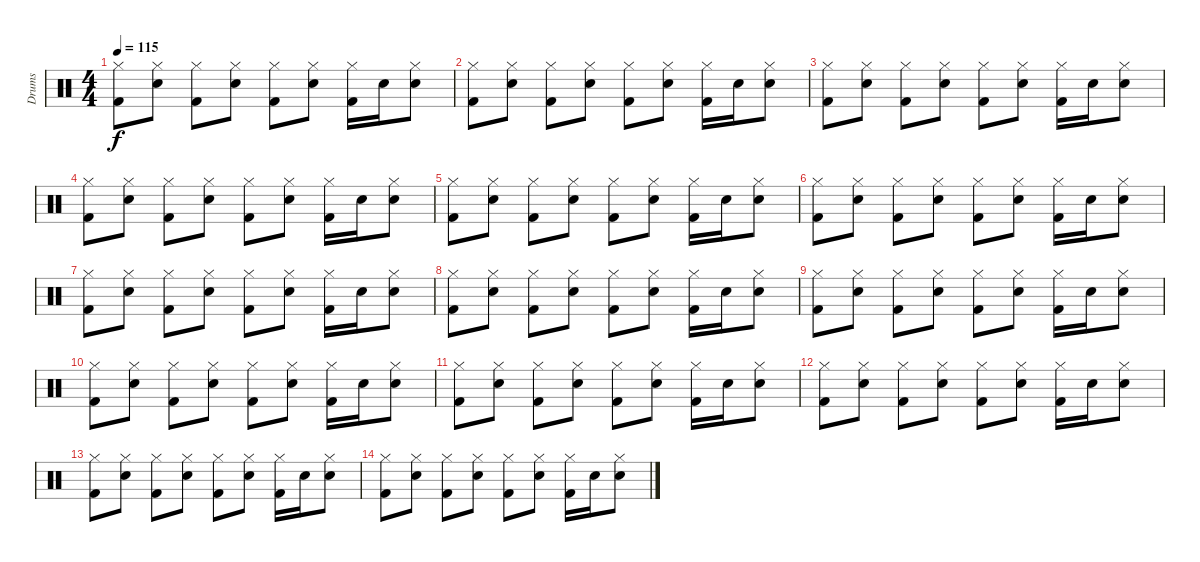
\track ("Drums" "Drums") {instrument percussion}
\staff {score}
\articulation defaults
\ts (4 4)
\tempo 115
\clef neutral
\ks c
("Hi-Hat (closed)" "Kick (hit) 2").8{dy f} ("Electric Snare (hit)" "Hi-Hat (closed)").8 ("Hi-Hat (closed)" "Kick (hit) 2").8 ("Electric Snare (hit)" "Hi-Hat (closed)").8 ("Hi-Hat (closed)" "Kick (hit) 2").8 ("Electric Snare (hit)" "Hi-Hat (closed)").8 ("Hi-Hat (closed)" "Kick (hit) 2").16 "Electric Snare (hit)".16 ("Electric Snare (hit)" "Hi-Hat (closed)").8 |
("Hi-Hat (closed)" "Kick (hit) 2").8 ("Electric Snare (hit)" "Hi-Hat (closed)").8 ("Hi-Hat (closed)" "Kick (hit) 2").8 ("Electric Snare (hit)" "Hi-Hat (closed)").8 ("Hi-Hat (closed)" "Kick (hit) 2").8 ("Electric Snare (hit)" "Hi-Hat (closed)").8 ("Hi-Hat (closed)" "Kick (hit) 2").16 "Electric Snare (hit)".16 ("Electric Snare (hit)" "Hi-Hat (closed)").8 |
("Hi-Hat (closed)" "Kick (hit) 2").8 ("Electric Snare (hit)" "Hi-Hat (closed)").8 ("Hi-Hat (closed)" "Kick (hit) 2").8 ("Electric Snare (hit)" "Hi-Hat (closed)").8 ("Hi-Hat (closed)" "Kick (hit) 2").8 ("Electric Snare (hit)" "Hi-Hat (closed)").8 ("Hi-Hat (closed)" "Kick (hit) 2").16 "Electric Snare (hit)".16 ("Electric Snare (hit)" "Hi-Hat (closed)").8 |
("Hi-Hat (closed)" "Kick (hit) 2").8 ("Electric Snare (hit)" "Hi-Hat (closed)").8 ("Hi-Hat (closed)" "Kick (hit) 2").8 ("Electric Snare (hit)" "Hi-Hat (closed)").8 ("Hi-Hat (closed)" "Kick (hit) 2").8 ("Electric Snare (hit)" "Hi-Hat (closed)").8 ("Hi-Hat (closed)" "Kick (hit) 2").16 "Electric Snare (hit)".16 ("Electric Snare (hit)" "Hi-Hat (closed)").8 |
("Hi-Hat (closed)" "Kick (hit) 2").8 ("Electric Snare (hit)" "Hi-Hat (closed)").8 ("Hi-Hat (closed)" "Kick (hit) 2").8 ("Electric Snare (hit)" "Hi-Hat (closed)").8 ("Hi-Hat (closed)" "Kick (hit) 2").8 ("Electric Snare (hit)" "Hi-Hat (closed)").8 ("Hi-Hat (closed)" "Kick (hit) 2").16 "Electric Snare (hit)".16 ("Electric Snare (hit)" "Hi-Hat (closed)").8 |
("Hi-Hat (closed)" "Kick (hit) 2").8 ("Electric Snare (hit)" "Hi-Hat (closed)").8 ("Hi-Hat (closed)" "Kick (hit) 2").8 ("Electric Snare (hit)" "Hi-Hat (closed)").8 ("Hi-Hat (closed)" "Kick (hit) 2").8 ("Electric Snare (hit)" "Hi-Hat (closed)").8 ("Hi-Hat (closed)" "Kick (hit) 2").16 "Electric Snare (hit)".16 ("Electric Snare (hit)" "Hi-Hat (closed)").8 |
("Hi-Hat (closed)" "Kick (hit) 2").8 ("Electric Snare (hit)" "Hi-Hat (closed)").8 ("Hi-Hat (closed)" "Kick (hit) 2").8 ("Electric Snare (hit)" "Hi-Hat (closed)").8 ("Hi-Hat (closed)" "Kick (hit) 2").8 ("Electric Snare (hit)" "Hi-Hat (closed)").8 ("Hi-Hat (closed)" "Kick (hit) 2").16 "Electric Snare (hit)".16 ("Electric Snare (hit)" "Hi-Hat (closed)").8 |
("Hi-Hat (closed)" "Kick (hit) 2").8 ("Electric Snare (hit)" "Hi-Hat (closed)").8 ("Hi-Hat (closed)" "Kick (hit) 2").8 ("Electric Snare (hit)" "Hi-Hat (closed)").8 ("Hi-Hat (closed)" "Kick (hit) 2").8 ("Electric Snare (hit)" "Hi-Hat (closed)").8 ("Hi-Hat (closed)" "Kick (hit) 2").16 "Electric Snare (hit)".16 ("Electric Snare (hit)" "Hi-Hat (closed)").8 |
("Hi-Hat (closed)" "Kick (hit) 2").8 ("Electric Snare (hit)" "Hi-Hat (closed)").8 ("Hi-Hat (closed)" "Kick (hit) 2").8 ("Electric Snare (hit)" "Hi-Hat (closed)").8 ("Hi-Hat (closed)" "Kick (hit) 2").8 ("Electric Snare (hit)" "Hi-Hat (closed)").8 ("Hi-Hat (closed)" "Kick (hit) 2").16 "Electric Snare (hit)".16 ("Electric Snare (hit)" "Hi-Hat (closed)").8 |
("Hi-Hat (closed)" "Kick (hit) 2").8 ("Electric Snare (hit)" "Hi-Hat (closed)").8 ("Hi-Hat (closed)" "Kick (hit) 2").8 ("Electric Snare (hit)" "Hi-Hat (closed)").8 ("Hi-Hat (closed)" "Kick (hit) 2").8 ("Electric Snare (hit)" "Hi-Hat (closed)").8 ("Hi-Hat (closed)" "Kick (hit) 2").16 "Electric Snare (hit)".16 ("Electric Snare (hit)" "Hi-Hat (closed)").8 |
("Hi-Hat (closed)" "Kick (hit) 2").8 ("Electric Snare (hit)" "Hi-Hat (closed)").8 ("Hi-Hat (closed)" "Kick (hit) 2").8 ("Electric Snare (hit)" "Hi-Hat (closed)").8 ("Hi-Hat (closed)" "Kick (hit) 2").8 ("Electric Snare (hit)" "Hi-Hat (closed)").8 ("Hi-Hat (closed)" "Kick (hit) 2").16 "Electric Snare (hit)".16 ("Electric Snare (hit)" "Hi-Hat (closed)").8 |
("Hi-Hat (closed)" "Kick (hit) 2").8 ("Electric Snare (hit)" "Hi-Hat (closed)").8 ("Hi-Hat (closed)" "Kick (hit) 2").8 ("Electric Snare (hit)" "Hi-Hat (closed)").8 ("Hi-Hat (closed)" "Kick (hit) 2").8 ("Electric Snare (hit)" "Hi-Hat (closed)").8 ("Hi-Hat (closed)" "Kick (hit) 2").16 "Electric Snare (hit)".16 ("Electric Snare (hit)" "Hi-Hat (closed)").8 |
("Hi-Hat (closed)" "Kick (hit) 2").8 ("Electric Snare (hit)" "Hi-Hat (closed)").8 ("Hi-Hat (closed)" "Kick (hit) 2").8 ("Electric Snare (hit)" "Hi-Hat (closed)").8 ("Hi-Hat (closed)" "Kick (hit) 2").8 ("Electric Snare (hit)" "Hi-Hat (closed)").8 ("Hi-Hat (closed)" "Kick (hit) 2").16 "Electric Snare (hit)".16 ("Electric Snare (hit)" "Hi-Hat (closed)").8 |
("Hi-Hat (closed)" "Kick (hit) 2").8 ("Electric Snare (hit)" "Hi-Hat (closed)").8 ("Hi-Hat (closed)" "Kick (hit) 2").8 ("Electric Snare (hit)" "Hi-Hat (closed)").8 ("Hi-Hat (closed)" "Kick (hit) 2").8 ("Electric Snare (hit)" "Hi-Hat (closed)").8 ("Hi-Hat (closed)" "Kick (hit) 2").16 "Electric Snare (hit)".16 ("Electric Snare (hit)" "Hi-Hat (closed)").8
